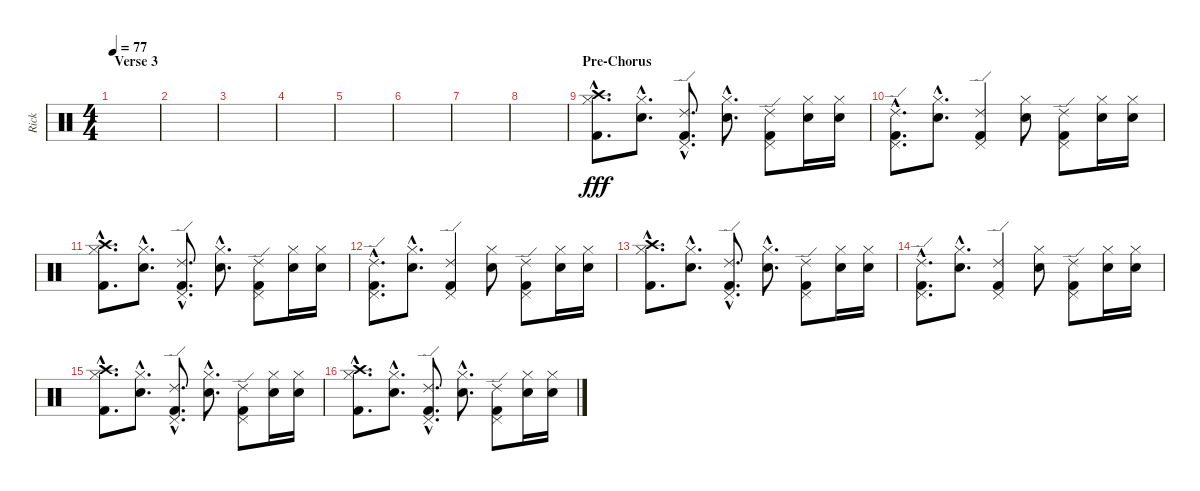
\track ("Rick" "Rick") {instrument percussion}
\staff {score}
\articulation defaults
\ts (4 4)
\section ("" "Verse 3")
\tempo 77
\clef neutral
\ks c
|
|
|
|
|
|
|
|
\section ("" "Pre-Chorus")
("Hi-Hat (closed)"{hac} "Kick (hit) 2"{hac} "Crash high (hit)"{hac}).8{d dy fff} ("Hi-Hat (closed)"{hac} "Electric Snare (hit)"{hac}).8{d} ("Pedal Hi-Hat (hit)"{hac} "Kick (hit) 2"{hac} "Ride (edge) 2"{hac}).8{d} ("Hi-Hat (closed)"{hac} "Electric Snare (hit)"{hac}).8{d} ("Pedal Hi-Hat (hit)" "Kick (hit) 2" "Ride (edge) 2").8 ("Hi-Hat (closed)" "Electric Snare (hit)").16 ("Hi-Hat (closed)" "Electric Snare (hit)").16 |
("Pedal Hi-Hat (hit)"{hac} "Kick (hit) 2"{hac} "Ride (edge) 2"{hac}).8{d} ("Hi-Hat (closed)"{hac} "Electric Snare (hit)"{hac}).8{d} ("Pedal Hi-Hat (hit)" "Kick (hit) 2" "Ride (edge) 2").4 ("Hi-Hat (closed)" "Electric Snare (hit)").8 ("Pedal Hi-Hat (hit)" "Kick (hit) 2" "Ride (edge) 2").8 ("Hi-Hat (closed)" "Electric Snare (hit)").16 ("Hi-Hat (closed)" "Electric Snare (hit)").16 |
("Hi-Hat (closed)"{hac} "Kick (hit) 2"{hac} "Crash high (hit)"{hac}).8{d} ("Hi-Hat (closed)"{hac} "Electric Snare (hit)"{hac}).8{d} ("Pedal Hi-Hat (hit)"{hac} "Kick (hit) 2"{hac} "Ride (edge) 2"{hac}).8{d} ("Hi-Hat (closed)"{hac} "Electric Snare (hit)"{hac}).8{d} ("Pedal Hi-Hat (hit)" "Kick (hit) 2" "Ride (edge) 2").8 ("Hi-Hat (closed)" "Electric Snare (hit)").16 ("Hi-Hat (closed)" "Electric Snare (hit)").16 |
("Pedal Hi-Hat (hit)"{hac} "Kick (hit) 2"{hac} "Ride (edge) 2"{hac}).8{d} ("Hi-Hat (closed)"{hac} "Electric Snare (hit)"{hac}).8{d} ("Pedal Hi-Hat (hit)" "Kick (hit) 2" "Ride (edge) 2").4 ("Hi-Hat (closed)" "Electric Snare (hit)").8 ("Pedal Hi-Hat (hit)" "Kick (hit) 2" "Ride (edge) 2").8 ("Hi-Hat (closed)" "Electric Snare (hit)").16 ("Hi-Hat (closed)" "Electric Snare (hit)").16 |
("Hi-Hat (closed)"{hac} "Kick (hit) 2"{hac} "Crash high (hit)"{hac}).8{d} ("Hi-Hat (closed)"{hac} "Electric Snare (hit)"{hac}).8{d} ("Pedal Hi-Hat (hit)"{hac} "Kick (hit) 2"{hac} "Ride (edge) 2"{hac}).8{d} ("Hi-Hat (closed)"{hac} "Electric Snare (hit)"{hac}).8{d} ("Pedal Hi-Hat (hit)" "Kick (hit) 2" "Ride (edge) 2").8 ("Hi-Hat (closed)" "Electric Snare (hit)").16 ("Hi-Hat (closed)" "Electric Snare (hit)").16 |
("Pedal Hi-Hat (hit)"{hac} "Kick (hit) 2"{hac} "Ride (edge) 2"{hac}).8{d} ("Hi-Hat (closed)"{hac} "Electric Snare (hit)"{hac}).8{d} ("Pedal Hi-Hat (hit)" "Kick (hit) 2" "Ride (edge) 2").4 ("Hi-Hat (closed)" "Electric Snare (hit)").8 ("Pedal Hi-Hat (hit)" "Kick (hit) 2" "Ride (edge) 2").8 ("Hi-Hat (closed)" "Electric Snare (hit)").16 ("Hi-Hat (closed)" "Electric Snare (hit)").16 |
("Hi-Hat (closed)"{hac} "Kick (hit) 2"{hac} "Crash high (hit)"{hac}).8{d} ("Hi-Hat (closed)"{hac} "Electric Snare (hit)"{hac}).8{d} ("Pedal Hi-Hat (hit)"{hac} "Kick (hit) 2"{hac} "Ride (edge) 2"{hac}).8{d} ("Hi-Hat (closed)"{hac} "Electric Snare (hit)"{hac}).8{d} ("Pedal Hi-Hat (hit)" "Kick (hit) 2" "Ride (edge) 2").8 ("Hi-Hat (closed)" "Electric Snare (hit)").16 ("Hi-Hat (closed)" "Electric Snare (hit)").16 |
("Hi-Hat (closed)"{hac} "Kick (hit) 2"{hac} "Crash high (hit)"{hac}).8{d} ("Hi-Hat (closed)"{hac} "Electric Snare (hit)"{hac}).8{d} ("Pedal Hi-Hat (hit)"{hac} "Kick (hit) 2"{hac} "Ride (edge) 2"{hac}).8{d} ("Hi-Hat (closed)"{hac} "Electric Snare (hit)"{hac}).8{d} ("Pedal Hi-Hat (hit)" "Kick (hit) 2" "Ride (edge) 2").8 ("Hi-Hat (closed)" "Electric Snare (hit)").16 ("Hi-Hat (closed)" "Electric Snare (hit)").16
